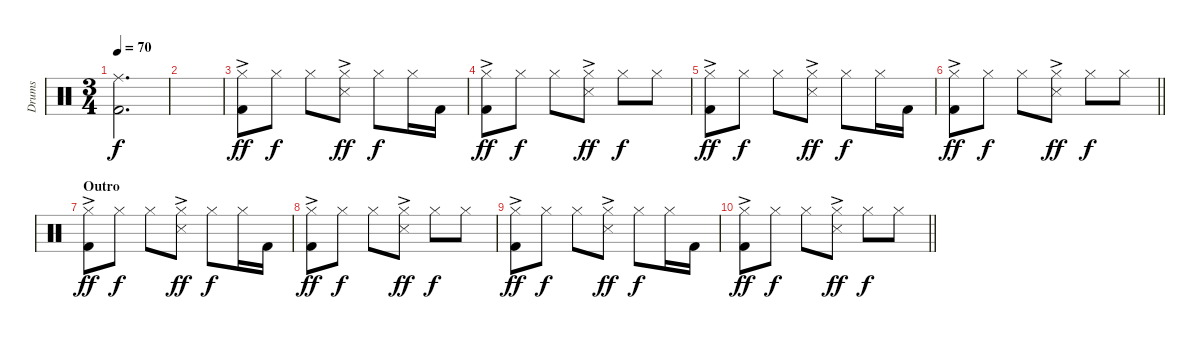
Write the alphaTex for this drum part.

\track ("Drums" "Drums") {instrument percussion}
\staff {score}
\articulation defaults
\ts (3 4)
\tempo 70
\clef neutral
\ks c
("Ride (middle)" "Kick (hit) 2").2{d dy f} |
|
("Hi-Hat (closed)" "Kick (hit) 2"{ac}).8{dy ff} "Hi-Hat (closed)".8{dy f} "Hi-Hat (closed)".8 ("Hi-Hat (closed)" "Snare (side stick) 3"{ac}).8{dy ff} "Hi-Hat (closed)".8{dy f} "Hi-Hat (closed)".16 "Kick (hit) 2".16 |
("Hi-Hat (closed)" "Kick (hit) 2"{ac}).8{dy ff} "Hi-Hat (closed)".8{dy f} "Hi-Hat (closed)".8 ("Hi-Hat (closed)" "Snare (side stick) 3"{ac}).8{dy ff} "Hi-Hat (closed)".8{dy f} "Hi-Hat (closed)".8 |
("Hi-Hat (closed)" "Kick (hit) 2"{ac}).8{dy ff} "Hi-Hat (closed)".8{dy f} "Hi-Hat (closed)".8 ("Hi-Hat (closed)" "Snare (side stick) 3"{ac}).8{dy ff} "Hi-Hat (closed)".8{dy f} "Hi-Hat (closed)".16 "Kick (hit) 2".16 |
\barLineRight lightlight
("Hi-Hat (closed)" "Kick (hit) 2"{ac}).8{dy ff} "Hi-Hat (closed)".8{dy f} "Hi-Hat (closed)".8 ("Hi-Hat (closed)" "Snare (side stick) 3"{ac}).8{dy ff} "Hi-Hat (closed)".8{dy f} "Hi-Hat (closed)".8 |
\section ("" "Outro")
("Hi-Hat (closed)" "Kick (hit) 2"{ac}).8{dy ff} "Hi-Hat (closed)".8{dy f} "Hi-Hat (closed)".8 ("Hi-Hat (closed)" "Snare (side stick) 3"{ac}).8{dy ff} "Hi-Hat (closed)".8{dy f} "Hi-Hat (closed)".16 "Kick (hit) 2".16 |
("Hi-Hat (closed)" "Kick (hit) 2"{ac}).8{dy ff} "Hi-Hat (closed)".8{dy f} "Hi-Hat (closed)".8 ("Hi-Hat (closed)" "Snare (side stick) 3"{ac}).8{dy ff} "Hi-Hat (closed)".8{dy f} "Hi-Hat (closed)".8 |
("Hi-Hat (closed)" "Kick (hit) 2"{ac}).8{dy ff} "Hi-Hat (closed)".8{dy f} "Hi-Hat (closed)".8 ("Hi-Hat (closed)" "Snare (side stick) 3"{ac}).8{dy ff} "Hi-Hat (closed)".8{dy f} "Hi-Hat (closed)".16 "Kick (hit) 2".16 |
\barLineRight lightlight
("Hi-Hat (closed)" "Kick (hit) 2"{ac}).8{dy ff} "Hi-Hat (closed)".8{dy f} "Hi-Hat (closed)".8 ("Hi-Hat (closed)" "Snare (side stick) 3"{ac}).8{dy ff} "Hi-Hat (closed)".8{dy f} "Hi-Hat (closed)".8
